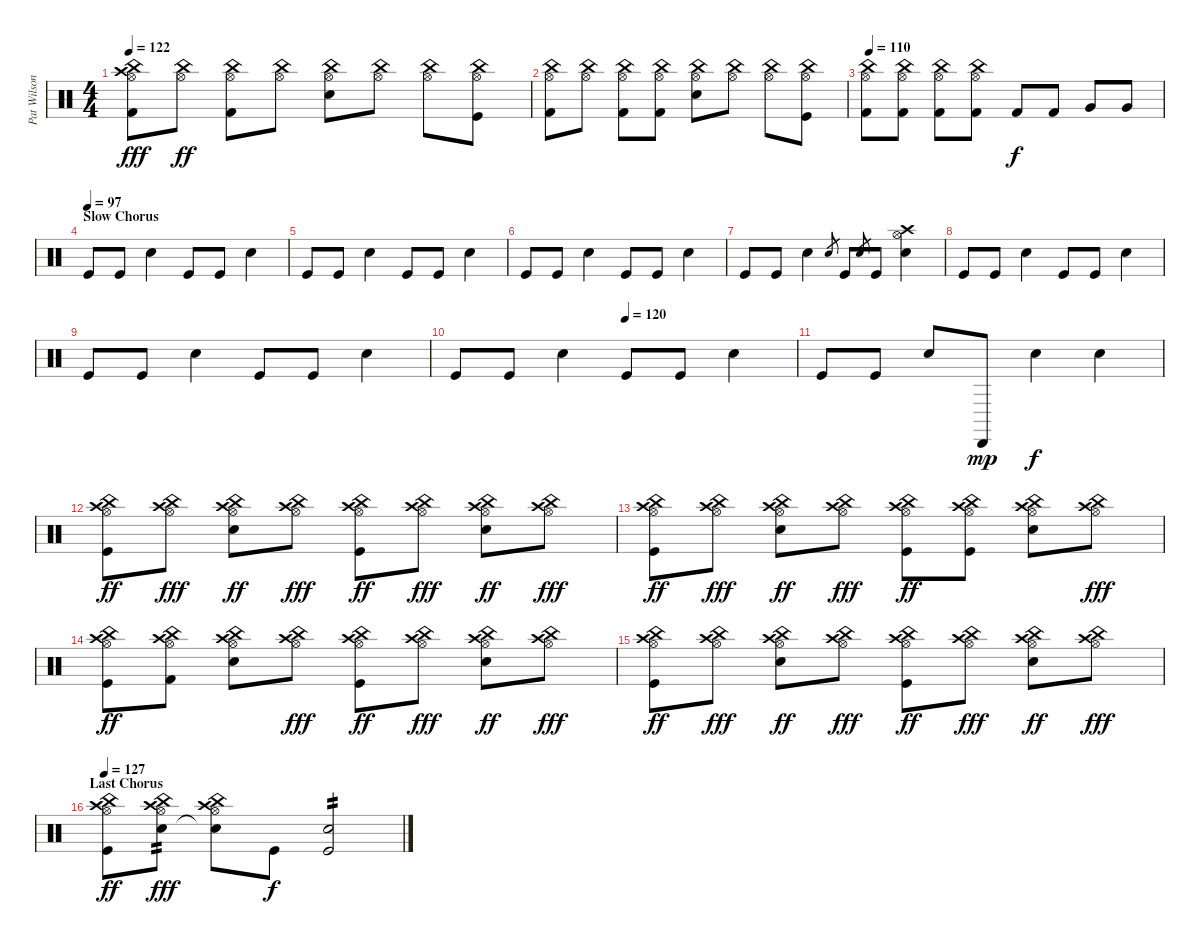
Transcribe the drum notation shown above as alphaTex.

\track ("Pat Wilson" "Pat Wilson") {instrument percussion}
\staff {score}
\articulation defaults
\ts (4 4)
\tempo 122
\clef neutral
\ks c
("Crash high (hit)" "Hi-Hat (open)" "China (hit)" "Kick (hit) 2").8{dy fff} ("Hi-Hat (open)" "China (hit)").8{dy ff} ("Hi-Hat (open)" "China (hit)" "Kick (hit) 2").8 ("Hi-Hat (open)" "China (hit)").8 ("Hi-Hat (open)" "China (hit)" "Snare (hit) 2").8 ("Hi-Hat (open)" "China (hit)").8 ("Hi-Hat (open)" "China (hit)").8 ("Hi-Hat (open)" "China (hit)" "Kick (hit)").8 |
("Hi-Hat (open)" "China (hit)" "Kick (hit) 2").8 ("Hi-Hat (open)" "China (hit)").8 ("Hi-Hat (open)" "China (hit)" "Kick (hit) 2").8 ("Hi-Hat (open)" "China (hit)" "Kick (hit) 2").8 ("Hi-Hat (open)" "China (hit)" "Snare (hit) 2").8 ("Hi-Hat (open)" "China (hit)").8 ("Hi-Hat (open)" "China (hit)").8 ("Hi-Hat (open)" "China (hit)" "Kick (hit)").8 |
\tempo 110
("Hi-Hat (open)" "China (hit)" "Kick (hit) 2").8 ("Hi-Hat (open)" "China (hit)" "Kick (hit) 2").8 ("Hi-Hat (open)" "China (hit)" "Kick (hit) 2").8 ("Hi-Hat (open)" "China (hit)" "Kick (hit) 2").8 "Kick (hit) 2".8{dy f} "Kick (hit) 2".8 "Very Low Tom (hit)".8 "Very Low Tom (hit)".8 |
\section ("" "Slow Chorus")
\tempo (97)
"Kick (hit)".8 "Kick (hit)".8 "Snare (hit) 2".4 "Kick (hit)".8 "Kick (hit)".8 "Snare (hit) 2".4 |
"Kick (hit)".8 "Kick (hit)".8 "Snare (hit) 2".4 "Kick (hit)".8 "Kick (hit)".8 "Snare (hit) 2".4 |
"Kick (hit)".8 "Kick (hit)".8 "Snare (hit) 2".4 "Kick (hit)".8 "Kick (hit)".8 "Snare (hit) 2".4 |
"Kick (hit)".8 "Kick (hit)".8 "Snare (hit) 2".4 "Electric Snare (hit)".8{gr} "Kick (hit)".8 "Electric Snare (hit)".8{gr} "Kick (hit)".8 ("Crash high (hit)" "Hi-Hat (open)" "Snare (hit) 2").4 |
"Kick (hit)".8 "Kick (hit)".8 "Snare (hit) 2".4 "Kick (hit)".8 "Kick (hit)".8 "Snare (hit) 2".4 |
"Kick (hit)".8 "Kick (hit)".8 "Snare (hit) 2".4 "Kick (hit)".8 "Kick (hit)".8 "Snare (hit) 2".4 |
\tempo (120 0.5)
"Kick (hit)".8 "Kick (hit)".8 "Snare (hit) 2".4 "Kick (hit)".8 "Kick (hit)".8 "Snare (hit) 2".4 |
"Kick (hit)".8 "Kick (hit)".8 "Snare (hit) 2".8 "Cabasa (hit)".8{dy mp} "Snare (hit) 2".4{dy f} "Snare (hit) 2".4 |
("Crash high (hit)" "Hi-Hat (open)" "China (hit)" "Kick (hit)").8{dy ff} ("Crash high (hit)" "Hi-Hat (open)" "China (hit)").8{dy fff} ("Crash high (hit)" "Hi-Hat (open)" "China (hit)" "Electric Snare (hit)").8{dy ff} ("Crash high (hit)" "Hi-Hat (open)" "China (hit)").8{dy fff} ("Crash high (hit)" "Hi-Hat (open)" "China (hit)" "Kick (hit)").8{dy ff} ("Crash high (hit)" "Hi-Hat (open)" "China (hit)").8{dy fff} ("Crash high (hit)" "Hi-Hat (open)" "China (hit)" "Electric Snare (hit)").8{dy ff} ("Crash high (hit)" "Hi-Hat (open)" "China (hit)").8{dy fff} |
("Crash high (hit)" "Hi-Hat (open)" "China (hit)" "Kick (hit)").8{dy ff} ("Crash high (hit)" "Hi-Hat (open)" "China (hit)").8{dy fff} ("Crash high (hit)" "Hi-Hat (open)" "China (hit)" "Electric Snare (hit)").8{dy ff} ("Crash high (hit)" "Hi-Hat (open)" "China (hit)").8{dy fff} ("Crash high (hit)" "Hi-Hat (open)" "China (hit)" "Kick (hit)").8{dy ff} ("Crash high (hit)" "Hi-Hat (open)" "China (hit)" "Kick (hit)").8 ("Crash high (hit)" "Hi-Hat (open)" "China (hit)" "Electric Snare (hit)").8 ("Crash high (hit)" "Hi-Hat (open)" "China (hit)").8{dy fff} |
("Crash high (hit)" "Hi-Hat (open)" "China (hit)" "Kick (hit)").8{dy ff} ("Crash high (hit)" "Hi-Hat (open)" "China (hit)" "Kick (hit) 2").8 ("Crash high (hit)" "Hi-Hat (open)" "China (hit)" "Electric Snare (hit)").8 ("Crash high (hit)" "Hi-Hat (open)" "China (hit)").8{dy fff} ("Crash high (hit)" "Hi-Hat (open)" "China (hit)" "Kick (hit)").8{dy ff} ("Crash high (hit)" "Hi-Hat (open)" "China (hit)").8{dy fff} ("Crash high (hit)" "Hi-Hat (open)" "China (hit)" "Electric Snare (hit)").8{dy ff} ("Crash high (hit)" "Hi-Hat (open)" "China (hit)").8{dy fff} |
("Crash high (hit)" "Hi-Hat (open)" "China (hit)" "Kick (hit)").8{dy ff} ("Crash high (hit)" "Hi-Hat (open)" "China (hit)").8{dy fff} ("Crash high (hit)" "Hi-Hat (open)" "China (hit)" "Electric Snare (hit)").8{dy ff} ("Crash high (hit)" "Hi-Hat (open)" "China (hit)").8{dy fff} ("Crash high (hit)" "Hi-Hat (open)" "China (hit)" "Kick (hit)").8{dy ff} ("Crash high (hit)" "Hi-Hat (open)" "China (hit)").8{dy fff} ("Crash high (hit)" "Hi-Hat (open)" "China (hit)" "Electric Snare (hit)").8{dy ff} ("Crash high (hit)" "Hi-Hat (open)" "China (hit)").8{dy fff} |
\section ("" "Last Chorus")
\tempo 127
("Crash high (hit)" "Hi-Hat (open)" "China (hit)" "Kick (hit)").8{dy ff} ("Crash high (hit)" "Hi-Hat (open)" "China (hit)" "Snare (hit) 2").8{tp 2 dy fff} ("Crash high (hit)" "Hi-Hat (open)" "China (hit)" "Electric Snare (hit)"{t}).8 "Kick (hit)".8{dy f} ("Snare (hit) 2" "Kick (hit)").2{tp 2}
